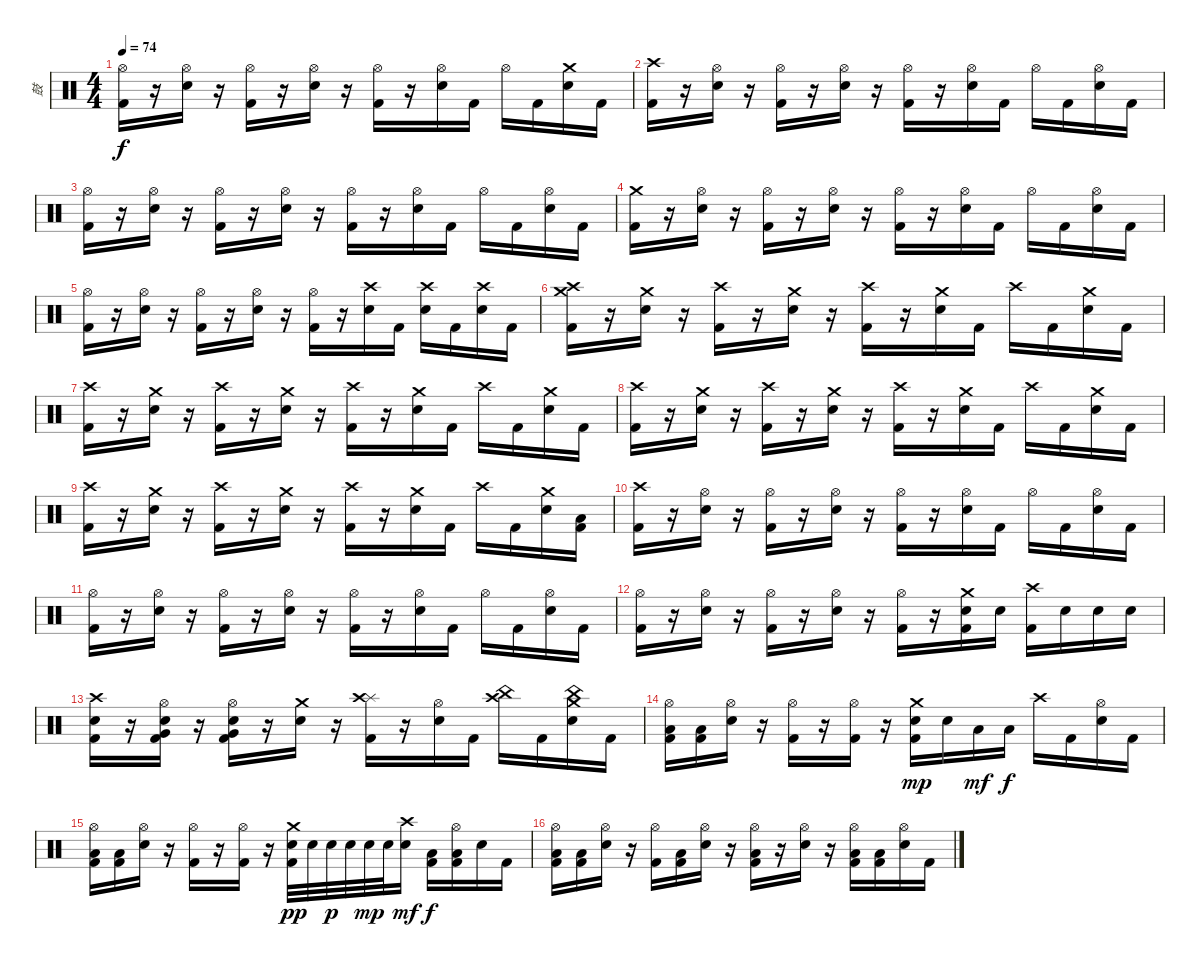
\track ("鼓" "鼓") {instrument percussion}
\staff {score}
\articulation defaults
\ts (4 4)
\tempo 74
\clef neutral
\ks c
("Hi-Hat (open)" "Kick (hit) 2").16{dy f} r.16 ("Hi-Hat (open)" "Electric Snare (hit)").16 r.16 ("Hi-Hat (open)" "Kick (hit) 2").16 r.16 ("Hi-Hat (open)" "Electric Snare (hit)").16 r.16 ("Hi-Hat (open)" "Kick (hit) 2").16 r.16 ("Hi-Hat (open)" "Electric Snare (hit)").16 "Kick (hit) 2".16 "Hi-Hat (open)".16 "Kick (hit) 2".16 ("Crash medium (hit)" "Electric Snare (hit)").16 "Kick (hit) 2".16 |
("Crash high (hit)" "Kick (hit) 2").16 r.16 ("Hi-Hat (open)" "Electric Snare (hit)").16 r.16 ("Hi-Hat (open)" "Kick (hit) 2").16 r.16 ("Hi-Hat (open)" "Electric Snare (hit)").16 r.16 ("Hi-Hat (open)" "Kick (hit) 2").16 r.16 ("Hi-Hat (open)" "Electric Snare (hit)").16 "Kick (hit) 2".16 "Hi-Hat (open)".16 "Kick (hit) 2".16 ("Hi-Hat (open)" "Electric Snare (hit)").16 "Kick (hit) 2".16 |
("Hi-Hat (open)" "Kick (hit) 2").16 r.16 ("Hi-Hat (open)" "Electric Snare (hit)").16 r.16 ("Hi-Hat (open)" "Kick (hit) 2").16 r.16 ("Hi-Hat (open)" "Electric Snare (hit)").16 r.16 ("Hi-Hat (open)" "Kick (hit) 2").16 r.16 ("Hi-Hat (open)" "Electric Snare (hit)").16 "Kick (hit) 2".16 "Hi-Hat (open)".16 "Kick (hit) 2".16 ("Hi-Hat (open)" "Electric Snare (hit)").16 "Kick (hit) 2".16 |
("Crash medium (hit)" "Kick (hit) 2").16 r.16 ("Hi-Hat (open)" "Electric Snare (hit)").16 r.16 ("Hi-Hat (open)" "Kick (hit) 2").16 r.16 ("Hi-Hat (open)" "Electric Snare (hit)").16 r.16 ("Hi-Hat (open)" "Kick (hit) 2").16 r.16 ("Hi-Hat (open)" "Electric Snare (hit)").16 "Kick (hit) 2".16 "Hi-Hat (open)".16 "Kick (hit) 2".16 ("Hi-Hat (open)" "Electric Snare (hit)").16 "Kick (hit) 2".16 |
("Hi-Hat (open)" "Kick (hit) 2").16 r.16 ("Hi-Hat (open)" "Electric Snare (hit)").16 r.16 ("Hi-Hat (open)" "Kick (hit) 2").16 r.16 ("Hi-Hat (open)" "Electric Snare (hit)").16 r.16 ("Hi-Hat (open)" "Kick (hit) 2").16 r.16 ("Crash high (hit)" "Electric Snare (hit)").16 "Kick (hit) 2".16 ("Crash high (hit)" "Electric Snare (hit)").16 "Kick (hit) 2".16 ("Crash high (hit)" "Electric Snare (hit)").16 "Kick (hit) 2".16 |
("Crash medium (hit)" "Crash high (hit)" "Kick (hit) 2").16 r.16 ("Crash medium (hit)" "Electric Snare (hit)").16 r.16 ("Crash high (hit)" "Kick (hit) 2").16 r.16 ("Crash medium (hit)" "Electric Snare (hit)").16 r.16 ("Crash high (hit)" "Kick (hit) 2").16 r.16 ("Crash medium (hit)" "Electric Snare (hit)").16 "Kick (hit) 2".16 "Crash high (hit)".16 "Kick (hit) 2".16 ("Crash medium (hit)" "Electric Snare (hit)").16 "Kick (hit) 2".16 |
("Crash high (hit)" "Kick (hit) 2").16 r.16 ("Crash medium (hit)" "Electric Snare (hit)").16 r.16 ("Crash high (hit)" "Kick (hit) 2").16 r.16 ("Crash medium (hit)" "Electric Snare (hit)").16 r.16 ("Crash high (hit)" "Kick (hit) 2").16 r.16 ("Crash medium (hit)" "Electric Snare (hit)").16 "Kick (hit) 2".16 "Crash high (hit)".16 "Kick (hit) 2".16 ("Crash medium (hit)" "Electric Snare (hit)").16 "Kick (hit) 2".16 |
("Crash high (hit)" "Kick (hit) 2").16 r.16 ("Crash medium (hit)" "Electric Snare (hit)").16 r.16 ("Crash high (hit)" "Kick (hit) 2").16 r.16 ("Crash medium (hit)" "Electric Snare (hit)").16 r.16 ("Crash high (hit)" "Kick (hit) 2").16 r.16 ("Crash medium (hit)" "Electric Snare (hit)").16 "Kick (hit) 2".16 "Crash high (hit)".16 "Kick (hit) 2".16 ("Crash medium (hit)" "Electric Snare (hit)").16 "Kick (hit) 2".16 |
("Crash high (hit)" "Kick (hit) 2").16 r.16 ("Crash medium (hit)" "Electric Snare (hit)").16 r.16 ("Crash high (hit)" "Kick (hit) 2").16 r.16 ("Crash medium (hit)" "Electric Snare (hit)").16 r.16 ("Crash high (hit)" "Kick (hit) 2").16 r.16 ("Crash medium (hit)" "Electric Snare (hit)").16 "Kick (hit) 2".16 "Crash high (hit)".16 "Kick (hit) 2".16 ("Crash medium (hit)" "Electric Snare (hit)").16 ("Low Tom (hit)" "Kick (hit) 2").16 |
("Crash high (hit)" "Kick (hit) 2").16 r.16 ("Hi-Hat (open)" "Electric Snare (hit)").16 r.16 ("Hi-Hat (open)" "Kick (hit) 2").16 r.16 ("Hi-Hat (open)" "Electric Snare (hit)").16 r.16 ("Hi-Hat (open)" "Kick (hit) 2").16 r.16 ("Hi-Hat (open)" "Electric Snare (hit)").16 "Kick (hit) 2".16 "Hi-Hat (open)".16 "Kick (hit) 2".16 ("Hi-Hat (open)" "Electric Snare (hit)").16 "Kick (hit) 2".16 |
("Hi-Hat (open)" "Kick (hit) 2").16 r.16 ("Hi-Hat (open)" "Electric Snare (hit)").16 r.16 ("Hi-Hat (open)" "Kick (hit) 2").16 r.16 ("Hi-Hat (open)" "Electric Snare (hit)").16 r.16 ("Hi-Hat (open)" "Kick (hit) 2").16 r.16 ("Hi-Hat (open)" "Electric Snare (hit)").16 "Kick (hit) 2".16 "Hi-Hat (open)".16 "Kick (hit) 2".16 ("Hi-Hat (open)" "Electric Snare (hit)").16 "Kick (hit) 2".16 |
("Hi-Hat (open)" "Kick (hit) 2").16 r.16 ("Hi-Hat (open)" "Electric Snare (hit)").16 r.16 ("Hi-Hat (open)" "Kick (hit) 2").16 r.16 ("Hi-Hat (open)" "Electric Snare (hit)").16 r.16 ("Hi-Hat (open)" "Kick (hit) 2").16 r.16 ("Crash medium (hit)" "Electric Snare (hit)" "Kick (hit) 2").16 "Electric Snare (hit)".16 ("Crash high (hit)" "Kick (hit) 2").16 "Electric Snare (hit)".16 "Electric Snare (hit)".16 "Electric Snare (hit)".16 |
("Crash high (hit)" "Electric Snare (hit)" "Kick (hit) 2").16 r.16 ("Hi-Hat (open)" "Electric Snare (hit)" "Very Low Tom (hit)" "Kick (hit) 2").16 r.16 ("Hi-Hat (open)" "Electric Snare (hit)" "Very Low Tom (hit)" "Kick (hit) 2").16 r.16 ("Crash medium (hit)" "Electric Snare (hit)").16 r.16 ("Splash (hit)" "Crash high (hit)" "Kick (hit) 2").16 r.16 ("Hi-Hat (open)" "Electric Snare (hit)").16 "Kick (hit) 2".16 ("Crash high (hit)" "China (hit)").16 "Kick (hit) 2".16 ("Crash medium (hit)" "China (hit)" "Electric Snare (hit)").16 "Kick (hit) 2".16 |
("Hi-Hat (open)" "Kick (hit) 2" "Low Tom (hit)").16 ("Kick (hit) 2" "Low Tom (hit)").16 ("Hi-Hat (open)" "Electric Snare (hit)").16 r.16 ("Hi-Hat (open)" "Kick (hit) 2").16 r.16 ("Hi-Hat (open)" "Kick (hit) 2").16 r.16 ("Crash medium (hit)" "Electric Snare (hit)" "Kick (hit) 2").16{dy mp} "Electric Snare (hit)".16 "Low Tom (hit)".16{dy mf} "Low Tom (hit)".16{dy f} "Crash high (hit)".16 "Kick (hit) 2".16 ("Hi-Hat (open)" "Electric Snare (hit)").16 "Kick (hit) 2".16 |
("Hi-Hat (open)" "Kick (hit) 2" "Low Tom (hit)").16 ("Kick (hit) 2" "Low Tom (hit)").16 ("Hi-Hat (open)" "Electric Snare (hit)").16 r.16 ("Hi-Hat (open)" "Kick (hit) 2").16 r.16 ("Hi-Hat (open)" "Kick (hit) 2").16 r.16 ("Crash medium (hit)" "Electric Snare (hit)" "Kick (hit) 2").32{dy pp} "Electric Snare (hit)".32 "Electric Snare (hit)".32{dy p} "Electric Snare (hit)".32 "Electric Snare (hit)".32{dy mp} "Electric Snare (hit)".32 ("Crash high (hit)" "Electric Snare (hit)").16{dy mf} ("Low Tom (hit)" "Kick (hit) 2").16{dy f} ("Hi-Hat (open)" "Low Tom (hit)" "Kick (hit) 2").16 "Electric Snare (hit)".16 "Kick (hit) 2".16 |
("Hi-Hat (open)" "Low Tom (hit)" "Kick (hit) 2").16 ("Low Tom (hit)" "Kick (hit) 2").16 ("Hi-Hat (open)" "Electric Snare (hit)").16 r.16 ("Hi-Hat (open)" "Kick (hit) 2").16 ("Low Tom (hit)" "Kick (hit) 2").16 ("Hi-Hat (open)" "Electric Snare (hit)").16 r.16 ("Hi-Hat (open)" "Low Tom (hit)" "Kick (hit) 2").16 r.16 ("Hi-Hat (open)" "Electric Snare (hit)").16 r.16 ("Hi-Hat (open)" "Low Tom (hit)" "Kick (hit) 2").16 ("Low Tom (hit)" "Kick (hit) 2").16 ("Hi-Hat (open)" "Electric Snare (hit)").16 "Kick (hit) 2".16
